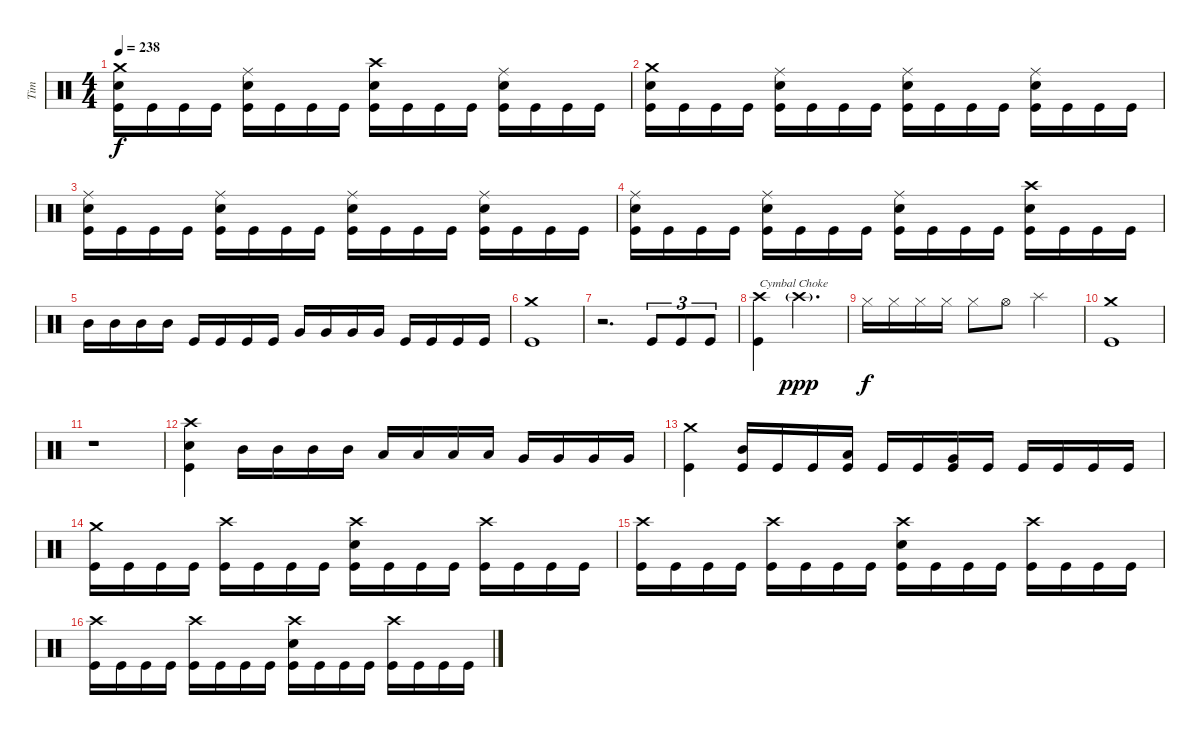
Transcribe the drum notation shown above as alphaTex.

\track ("Tim" "Tim") {instrument percussion}
\staff {score}
\articulation defaults
\ts (4 4)
\tempo 238
\clef neutral
\ks c
("Crash medium (hit)" "Electric Snare (hit)" "Kick (hit)").16{dy f} "Kick (hit)".16 "Kick (hit)".16 "Kick (hit)".16 ("Ride (middle)" "Electric Snare (hit)" "Kick (hit)").16 "Kick (hit)".16 "Kick (hit)".16 "Kick (hit)".16 ("Crash high (hit)" "Electric Snare (hit)" "Kick (hit)").16 "Kick (hit)".16 "Kick (hit)".16 "Kick (hit)".16 ("Ride (middle)" "Electric Snare (hit)" "Kick (hit)").16 "Kick (hit)".16 "Kick (hit)".16 "Kick (hit)".16 |
("Crash medium (hit)" "Electric Snare (hit)" "Kick (hit)").16 "Kick (hit)".16 "Kick (hit)".16 "Kick (hit)".16 ("Ride (middle)" "Electric Snare (hit)" "Kick (hit)").16 "Kick (hit)".16 "Kick (hit)".16 "Kick (hit)".16 ("Ride (middle)" "Electric Snare (hit)" "Kick (hit)").16 "Kick (hit)".16 "Kick (hit)".16 "Kick (hit)".16 ("Ride (middle)" "Electric Snare (hit)" "Kick (hit)").16 "Kick (hit)".16 "Kick (hit)".16 "Kick (hit)".16 |
("Ride (middle)" "Electric Snare (hit)" "Kick (hit)").16 "Kick (hit)".16 "Kick (hit)".16 "Kick (hit)".16 ("Ride (middle)" "Electric Snare (hit)" "Kick (hit)").16 "Kick (hit)".16 "Kick (hit)".16 "Kick (hit)".16 ("Ride (middle)" "Electric Snare (hit)" "Kick (hit)").16 "Kick (hit)".16 "Kick (hit)".16 "Kick (hit)".16 ("Ride (middle)" "Electric Snare (hit)" "Kick (hit)").16 "Kick (hit)".16 "Kick (hit)".16 "Kick (hit)".16 |
("Ride (middle)" "Electric Snare (hit)" "Kick (hit)").16 "Kick (hit)".16 "Kick (hit)".16 "Kick (hit)".16 ("Ride (middle)" "Electric Snare (hit)" "Kick (hit)").16 "Kick (hit)".16 "Kick (hit)".16 "Kick (hit)".16 ("Ride (middle)" "Electric Snare (hit)" "Kick (hit)").16 "Kick (hit)".16 "Kick (hit)".16 "Kick (hit)".16 ("Crash high (hit)" "Electric Snare (hit)" "Kick (hit)").16 "Kick (hit)".16 "Kick (hit)".16 "Kick (hit)".16 |
"Mid Tom (hit)".16 "Mid Tom (hit)".16 "Mid Tom (hit)".16 "Mid Tom (hit)".16 "Kick (hit)".16 "Kick (hit)".16 "Kick (hit)".16 "Kick (hit)".16 "Very Low Tom (hit)".16 "Very Low Tom (hit)".16 "Very Low Tom (hit)".16 "Very Low Tom (hit)".16 "Kick (hit)".16 "Kick (hit)".16 "Kick (hit)".16 "Kick (hit)".16 |
("Crash medium (hit)" "Kick (hit)").1 |
r.2{d} "Kick (hit)".8{tu (3 2)} "Kick (hit)".8{tu (3 2)} "Kick (hit)".8{tu (3 2)} |
("Crash high (hit)" "Kick (hit)").4{txt "Cymbal Choke"} "Crash high (hit)"{g}.2{d dy ppp} |
"Hi-Hat (closed)".16{dy f} "Hi-Hat (closed)".16 "Hi-Hat (closed)".16 "Hi-Hat (closed)".16 "Hi-Hat (closed)".8 "Hi-Hat (open)".8 "Splash (hit)".2 |
("Crash medium (hit)" "Kick (hit)").1 |
r.1 |
("Crash high (hit)" "Electric Snare (hit)" "Kick (hit)").4 "Mid Tom (hit)".16 "Mid Tom (hit)".16 "Mid Tom (hit)".16 "Mid Tom (hit)".16 "Low Tom (hit)".16 "Low Tom (hit)".16 "Low Tom (hit)".16 "Low Tom (hit)".16 "Very Low Tom (hit)".16 "Very Low Tom (hit)".16 "Very Low Tom (hit)".16 "Very Low Tom (hit)".16 |
("Crash medium (hit)" "Kick (hit)").4 ("Mid Tom (hit)" "Kick (hit)").16 "Kick (hit)".16 "Kick (hit)".16 ("Low Tom (hit)" "Kick (hit)").16 "Kick (hit)".16 "Kick (hit)".16 ("Very Low Tom (hit)" "Kick (hit)").16 "Kick (hit)".16 "Kick (hit)".16 "Kick (hit)".16 "Kick (hit)".16 "Kick (hit)".16 |
("Crash medium (hit)" "Kick (hit)").16 "Kick (hit)".16 "Kick (hit)".16 "Kick (hit)".16 ("Crash high (hit)" "Kick (hit)").16 "Kick (hit)".16 "Kick (hit)".16 "Kick (hit)".16 ("Crash high (hit)" "Electric Snare (hit)" "Kick (hit)").16 "Kick (hit)".16 "Kick (hit)".16 "Kick (hit)".16 ("Crash high (hit)" "Kick (hit)").16 "Kick (hit)".16 "Kick (hit)".16 "Kick (hit)".16 |
("Crash high (hit)" "Kick (hit)").16 "Kick (hit)".16 "Kick (hit)".16 "Kick (hit)".16 ("Crash high (hit)" "Kick (hit)").16 "Kick (hit)".16 "Kick (hit)".16 "Kick (hit)".16 ("Crash high (hit)" "Electric Snare (hit)" "Kick (hit)").16 "Kick (hit)".16 "Kick (hit)".16 "Kick (hit)".16 ("Crash high (hit)" "Kick (hit)").16 "Kick (hit)".16 "Kick (hit)".16 "Kick (hit)".16 |
("Crash high (hit)" "Kick (hit)").16 "Kick (hit)".16 "Kick (hit)".16 "Kick (hit)".16 ("Crash high (hit)" "Kick (hit)").16 "Kick (hit)".16 "Kick (hit)".16 "Kick (hit)".16 ("Crash high (hit)" "Electric Snare (hit)" "Kick (hit)").16 "Kick (hit)".16 "Kick (hit)".16 "Kick (hit)".16 ("Crash high (hit)" "Kick (hit)").16 "Kick (hit)".16 "Kick (hit)".16 "Kick (hit)".16
